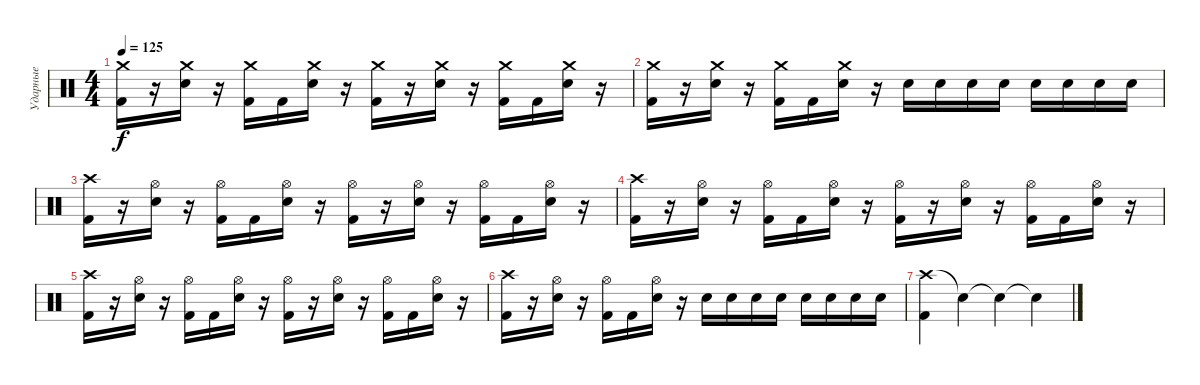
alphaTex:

\track ("Ударные" "Ударные") {instrument percussion}
\staff {score}
\articulation defaults
\ts (4 4)
\tempo 125
\clef neutral
\ks c
("Crash medium (hit)" "Kick (hit) 2").16{dy f} r.16 ("Crash medium (hit)" "Snare (hit) 2").16 r.16 ("Crash medium (hit)" "Kick (hit) 2").16 "Kick (hit) 2".16 ("Crash medium (hit)" "Snare (hit) 2").16 r.16 ("Crash medium (hit)" "Kick (hit) 2").16 r.16 ("Crash medium (hit)" "Snare (hit) 2").16 r.16 ("Crash medium (hit)" "Kick (hit) 2").16 "Kick (hit) 2".16 ("Crash medium (hit)" "Snare (hit) 2").16 r.16 |
("Crash medium (hit)" "Kick (hit) 2").16 r.16 ("Crash medium (hit)" "Snare (hit) 2").16 r.16 ("Crash medium (hit)" "Kick (hit) 2").16 "Kick (hit) 2".16 ("Crash medium (hit)" "Snare (hit) 2").16 r.16 "Snare (hit) 2".16 "Snare (hit) 2".16 "Snare (hit) 2".16 "Snare (hit) 2".16 "Snare (hit) 2".16 "Snare (hit) 2".16 "Snare (hit) 2".16 "Snare (hit) 2".16 |
("Crash high (hit)" "Kick (hit) 2").16 r.16 ("Hi-Hat (open)" "Snare (hit) 2").16 r.16 ("Hi-Hat (open)" "Kick (hit) 2").16 "Kick (hit) 2".16 ("Hi-Hat (open)" "Snare (hit) 2").16 r.16 ("Hi-Hat (open)" "Kick (hit) 2").16 r.16 ("Hi-Hat (open)" "Snare (hit) 2").16 r.16 ("Hi-Hat (open)" "Kick (hit) 2").16 "Kick (hit) 2".16 ("Hi-Hat (open)" "Snare (hit) 2").16 r.16 |
("Crash high (hit)" "Kick (hit) 2").16 r.16 ("Hi-Hat (open)" "Snare (hit) 2").16 r.16 ("Hi-Hat (open)" "Kick (hit) 2").16 "Kick (hit) 2".16 ("Hi-Hat (open)" "Snare (hit) 2").16 r.16 ("Hi-Hat (open)" "Kick (hit) 2").16 r.16 ("Hi-Hat (open)" "Snare (hit) 2").16 r.16 ("Hi-Hat (open)" "Kick (hit) 2").16 "Kick (hit) 2".16 ("Hi-Hat (open)" "Snare (hit) 2").16 r.16 |
("Crash high (hit)" "Kick (hit) 2").16 r.16 ("Hi-Hat (open)" "Snare (hit) 2").16 r.16 ("Hi-Hat (open)" "Kick (hit) 2").16 "Kick (hit) 2".16 ("Hi-Hat (open)" "Snare (hit) 2").16 r.16 ("Hi-Hat (open)" "Kick (hit) 2").16 r.16 ("Hi-Hat (open)" "Snare (hit) 2").16 r.16 ("Hi-Hat (open)" "Kick (hit) 2").16 "Kick (hit) 2".16 ("Hi-Hat (open)" "Snare (hit) 2").16 r.16 |
("Crash high (hit)" "Kick (hit) 2").16 r.16 ("Hi-Hat (open)" "Snare (hit) 2").16 r.16 ("Hi-Hat (open)" "Kick (hit) 2").16 "Kick (hit) 2".16 ("Hi-Hat (open)" "Snare (hit) 2").16 r.16 "Snare (hit) 2".16 "Snare (hit) 2".16 "Snare (hit) 2".16 "Snare (hit) 2".16 "Snare (hit) 2".16 "Snare (hit) 2".16 "Snare (hit) 2".16 "Snare (hit) 2".16 |
("Crash high (hit)" "Kick (hit) 2").4 "Snare (hit)"{t}.4 "Snare (hit)"{t}.4 "Snare (hit)"{t}.4
